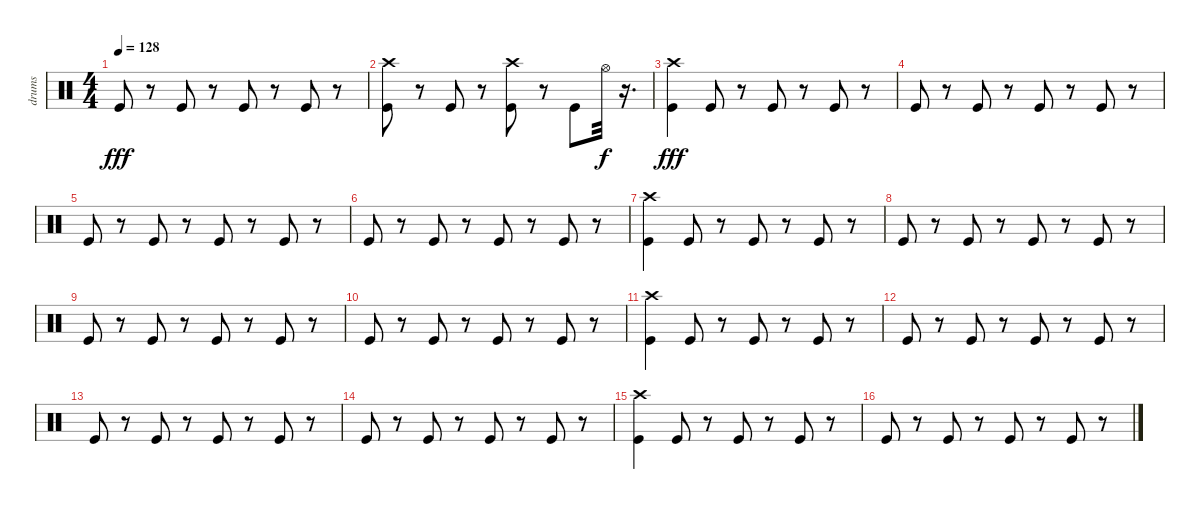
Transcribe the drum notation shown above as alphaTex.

\track ("drums" "drums") {instrument percussion}
\staff {score}
\articulation defaults
\ts (4 4)
\tempo 128
\clef neutral
\ks c "Kick (hit)".8{dy fff}
r.8 "Kick (hit)".8 r.8 "Kick (hit)".8 r.8 "Kick (hit)".8 r.8 |
("Kick (hit)" "Crash high (hit)").8 r.8 "Kick (hit)".8 r.8 ("Kick (hit)" "Crash high (hit)").8 r.8 "Kick (hit)".8 "Hi-Hat (open)".32{dy f} r.16{d} |
("Kick (hit)" "Crash high (hit)").4{dy fff} "Kick (hit)".8 r.8 "Kick (hit)".8 r.8 "Kick (hit)".8 r.8 |
"Kick (hit)".8 r.8 "Kick (hit)".8 r.8 "Kick (hit)".8 r.8 "Kick (hit)".8 r.8 |
"Kick (hit)".8 r.8 "Kick (hit)".8 r.8 "Kick (hit)".8 r.8 "Kick (hit)".8 r.8 |
"Kick (hit)".8 r.8 "Kick (hit)".8 r.8 "Kick (hit)".8 r.8 "Kick (hit)".8 r.8 |
("Kick (hit)" "Crash high (hit)").4 "Kick (hit)".8 r.8 "Kick (hit)".8 r.8 "Kick (hit)".8 r.8 |
"Kick (hit)".8 r.8 "Kick (hit)".8 r.8 "Kick (hit)".8 r.8 "Kick (hit)".8 r.8 |
"Kick (hit)".8 r.8 "Kick (hit)".8 r.8 "Kick (hit)".8 r.8 "Kick (hit)".8 r.8 |
"Kick (hit)".8 r.8 "Kick (hit)".8 r.8 "Kick (hit)".8 r.8 "Kick (hit)".8 r.8 |
("Kick (hit)" "Crash high (hit)").4 "Kick (hit)".8 r.8 "Kick (hit)".8 r.8 "Kick (hit)".8 r.8 |
"Kick (hit)".8 r.8 "Kick (hit)".8 r.8 "Kick (hit)".8 r.8 "Kick (hit)".8 r.8 |
"Kick (hit)".8 r.8 "Kick (hit)".8 r.8 "Kick (hit)".8 r.8 "Kick (hit)".8 r.8 |
"Kick (hit)".8 r.8 "Kick (hit)".8 r.8 "Kick (hit)".8 r.8 "Kick (hit)".8 r.8 |
("Kick (hit)" "Crash high (hit)").4 "Kick (hit)".8 r.8 "Kick (hit)".8 r.8 "Kick (hit)".8 r.8 |
"Kick (hit)".8 r.8 "Kick (hit)".8 r.8 "Kick (hit)".8 r.8 "Kick (hit)".8 r.8
